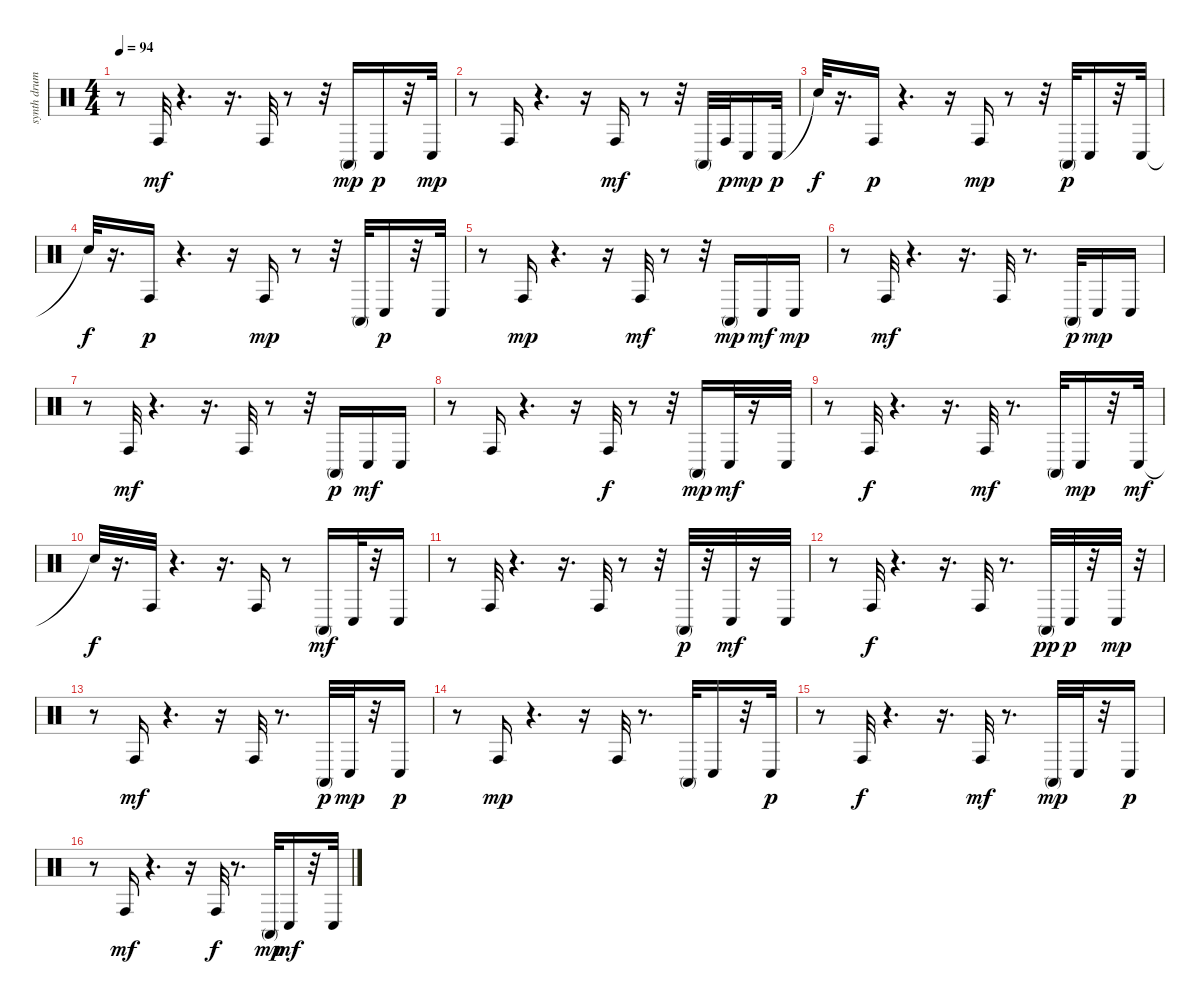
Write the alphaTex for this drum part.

\track ("synth drum" "synth drum") {instrument percussion}
\staff {score}
\articulation defaults
\ts (4 4)
\tempo 94
\clef neutral
\ks c
r.8{dy mf} "Conga high (hit)".32 r.4{d} r.16{d} "Conga high (hit)".32 r.8 r.32 "Conga high (mute)".16{dy mp} "Conga low (hit)".16{dy p} r.32 "Conga low (hit)".32{dy mp} |
r.8 "Conga high (hit)".16 r.4{d} r.16 "Conga high (hit)".16{dy mf} r.8 r.32 "Conga high (mute)".32 "Conga high (hit)".32{dy p} "Conga low (hit)".16{dy mp} "Conga low (hit)".32{dy p} |
"Snare (hit)"{t}.32{dy f} r.16{d} "Conga high (hit)".16{dy p} r.4{d} r.16 "Conga high (hit)".16{dy mp} r.8 r.32 "Conga high (mute)".32{dy p} "Conga low (hit)".16 r.32 "Conga low (hit)".32 |
"Snare (hit)"{t}.32{dy f} r.16{d} "Conga high (hit)".16{dy p} r.4{d} r.16 "Conga high (hit)".16{dy mp} r.8 r.32 "Conga high (mute)".32 "Conga low (hit)".16{dy p} r.32 "Conga low (hit)".32 |
r.8 "Conga high (hit)".16{dy mp} r.4{d} r.16 "Conga high (hit)".32{dy mf} r.8 r.32 "Conga high (mute)".16{dy mp} "Conga low (hit)".16{dy mf} "Conga low (hit)".16{dy mp} |
r.8 "Conga high (hit)".32{dy mf} r.4{d} r.16{d} "Conga high (hit)".32 r.8{d} "Conga high (mute)".32{dy p} "Conga low (hit)".16{dy mp} "Conga low (hit)".16 |
r.8 "Conga high (hit)".32{dy mf} r.4{d} r.16{d} "Conga high (hit)".32 r.8 r.32 "Conga high (mute)".16{dy p} "Conga low (hit)".16{dy mf} "Conga low (hit)".16 |
r.8 "Conga high (hit)".16 r.4{d} r.16 "Conga high (hit)".32{dy f} r.8 r.32 "Conga high (mute)".16{dy mp} "Conga low (hit)".32{dy mf} r.16 "Conga low (hit)".32 |
r.8 "Conga high (hit)".32{dy f} r.4{d} r.16{d} "Conga high (hit)".32{dy mf} r.8{d} "Conga high (mute)".32 "Conga low (hit)".16{dy mp} r.32 "Conga low (hit)".32{dy mf} |
"Snare (hit)"{t}.32{dy f} r.16{d} "Conga high (hit)".32 r.4{d} r.16{d} "Conga high (hit)".16 r.8 "Conga high (mute)".16{dy mf} "Conga low (hit)".32 r.32 "Conga low (hit)".16 |
r.8 "Conga high (hit)".32 r.4{d} r.16{d} "Conga high (hit)".32 r.8 r.32 "Conga high (mute)".32{dy p} r.32 "Conga low (hit)".32{dy mf} r.16 "Conga low (hit)".32 |
r.8 "Conga high (hit)".32{dy f} r.4{d} r.16{d} "Conga high (hit)".32 r.8{d} "Conga high (mute)".32{dy pp} "Conga low (hit)".32{dy p} r.32 "Conga low (hit)".32{dy mp} r.32 |
r.8 "Conga high (hit)".16{dy mf} r.4{d} r.16 "Conga high (hit)".32 r.8{d} "Conga high (mute)".32{dy p} "Conga low (hit)".32{dy mp} r.32 "Conga low (hit)".16{dy p} |
r.8 "Conga high (hit)".16{dy mp} r.4{d} r.16 "Conga high (hit)".32 r.8{d} "Conga high (mute)".32 "Conga low (hit)".16 r.32 "Conga low (hit)".32{dy p} |
r.8 "Conga high (hit)".32{dy f} r.4{d} r.16{d} "Conga high (hit)".32{dy mf} r.8{d} "Conga high (mute)".32{dy mp} "Conga low (hit)".32 r.32 "Conga low (hit)".16{dy p} |
r.8 "Conga high (hit)".16{dy mf} r.4{d} r.16 "Conga high (hit)".32{dy f} r.8{d} "Conga high (mute)".32{dy mp} "Conga low (hit)".16{dy mf} r.32 "Conga low (hit)".32
